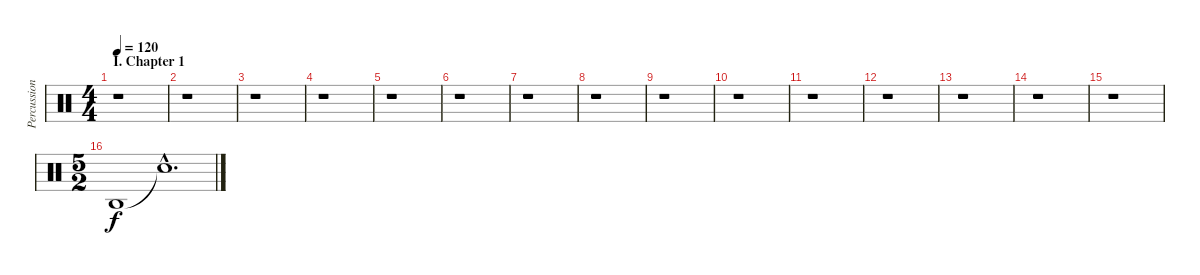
\track ("Percussion" "Percussion") {instrument percussion}
\staff {score}
\articulation defaults
\ts (4 4)
\section ("" "I. Chapter 1")
\tempo 120
\clef neutral
\ks c
r.1{dy f} |
r.1 |
r.1 |
r.1 |
r.1 |
r.1 |
r.1 |
r.1 |
r.1 |
r.1 |
r.1 |
r.1 |
r.1 |
r.1 |
r.1 |
\ts (5 2)
"Agogo high (hit)".1{volume 0} "Snare (hit)"{hac t}.1{d}
